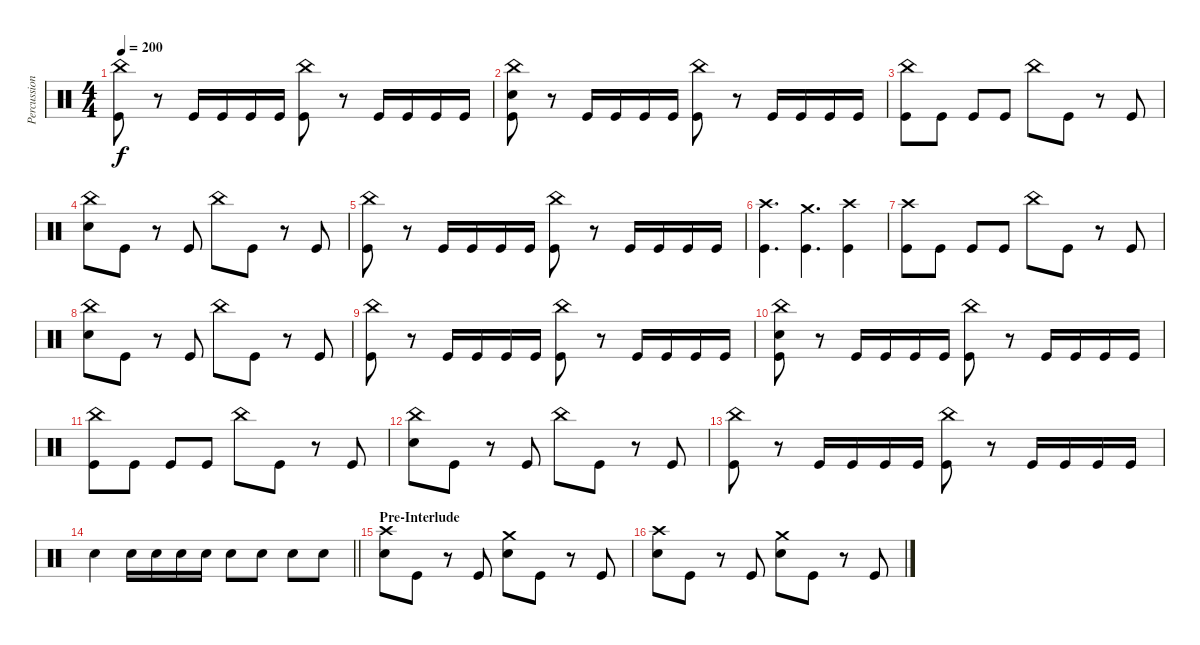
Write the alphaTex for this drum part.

\track ("Percussion" "Percussion") {instrument percussion}
\staff {score}
\articulation defaults
\ts (4 4)
\tempo 200
\clef neutral
\ks c
("China (hit)" "Kick (hit)").8{dy f} r.8 "Kick (hit)".16 "Kick (hit)".16 "Kick (hit)".16 "Kick (hit)".16 ("China (hit)" "Kick (hit)").8 r.8 "Kick (hit)".16 "Kick (hit)".16 "Kick (hit)".16 "Kick (hit)".16 |
("China (hit)" "Electric Snare (hit)" "Kick (hit)").8 r.8 "Kick (hit)".16 "Kick (hit)".16 "Kick (hit)".16 "Kick (hit)".16 ("China (hit)" "Kick (hit)").8 r.8 "Kick (hit)".16 "Kick (hit)".16 "Kick (hit)".16 "Kick (hit)".16 |
("China (hit)" "Kick (hit)").8 "Kick (hit)".8 "Kick (hit)".8 "Kick (hit)".8 "China (hit)".8 "Kick (hit)".8 r.8 "Kick (hit)".8 |
("China (hit)" "Electric Snare (hit)").8 "Kick (hit)".8 r.8 "Kick (hit)".8 "China (hit)".8 "Kick (hit)".8 r.8 "Kick (hit)".8 |
("China (hit)" "Kick (hit)").8 r.8 "Kick (hit)".16 "Kick (hit)".16 "Kick (hit)".16 "Kick (hit)".16 ("China (hit)" "Kick (hit)").8 r.8 "Kick (hit)".16 "Kick (hit)".16 "Kick (hit)".16 "Kick (hit)".16 |
("Crash high (hit)" "Kick (hit)").4{d} ("Crash medium (hit)" "Kick (hit)").4{d} ("Crash high (hit)" "Kick (hit)").4 |
("Crash high (hit)" "Kick (hit)").8 "Kick (hit)".8 "Kick (hit)".8 "Kick (hit)".8 "China (hit)".8 "Kick (hit)".8 r.8 "Kick (hit)".8 |
("China (hit)" "Electric Snare (hit)").8 "Kick (hit)".8 r.8 "Kick (hit)".8 "China (hit)".8 "Kick (hit)".8 r.8 "Kick (hit)".8 |
("China (hit)" "Kick (hit)").8 r.8 "Kick (hit)".16 "Kick (hit)".16 "Kick (hit)".16 "Kick (hit)".16 ("China (hit)" "Kick (hit)").8 r.8 "Kick (hit)".16 "Kick (hit)".16 "Kick (hit)".16 "Kick (hit)".16 |
("China (hit)" "Electric Snare (hit)" "Kick (hit)").8 r.8 "Kick (hit)".16 "Kick (hit)".16 "Kick (hit)".16 "Kick (hit)".16 ("China (hit)" "Kick (hit)").8 r.8 "Kick (hit)".16 "Kick (hit)".16 "Kick (hit)".16 "Kick (hit)".16 |
("China (hit)" "Kick (hit)").8 "Kick (hit)".8 "Kick (hit)".8 "Kick (hit)".8 "China (hit)".8 "Kick (hit)".8 r.8 "Kick (hit)".8 |
("China (hit)" "Electric Snare (hit)").8 "Kick (hit)".8 r.8 "Kick (hit)".8 "China (hit)".8 "Kick (hit)".8 r.8 "Kick (hit)".8 |
("China (hit)" "Kick (hit)").8 r.8 "Kick (hit)".16 "Kick (hit)".16 "Kick (hit)".16 "Kick (hit)".16 ("China (hit)" "Kick (hit)").8 r.8 "Kick (hit)".16 "Kick (hit)".16 "Kick (hit)".16 "Kick (hit)".16 |
\barLineRight lightlight "Electric Snare (hit)".4 "Electric Snare (hit)".16 "Electric Snare (hit)".16 "Electric Snare (hit)".16 "Electric Snare (hit)".16 "Electric Snare (hit)".8 "Electric Snare (hit)".8 "Electric Snare (hit)".8 "Electric Snare (hit)".8
|
\section ("" "Pre-Interlude")
("Crash high (hit)" "Electric Snare (hit)").8 "Kick (hit)".8 r.8 "Kick (hit)".8 ("Crash medium (hit)" "Electric Snare (hit)").8 "Kick (hit)".8 r.8 "Kick (hit)".8 |
("Crash high (hit)" "Electric Snare (hit)").8 "Kick (hit)".8 r.8 "Kick (hit)".8 ("Crash medium (hit)" "Electric Snare (hit)").8 "Kick (hit)".8 r.8 "Kick (hit)".8
